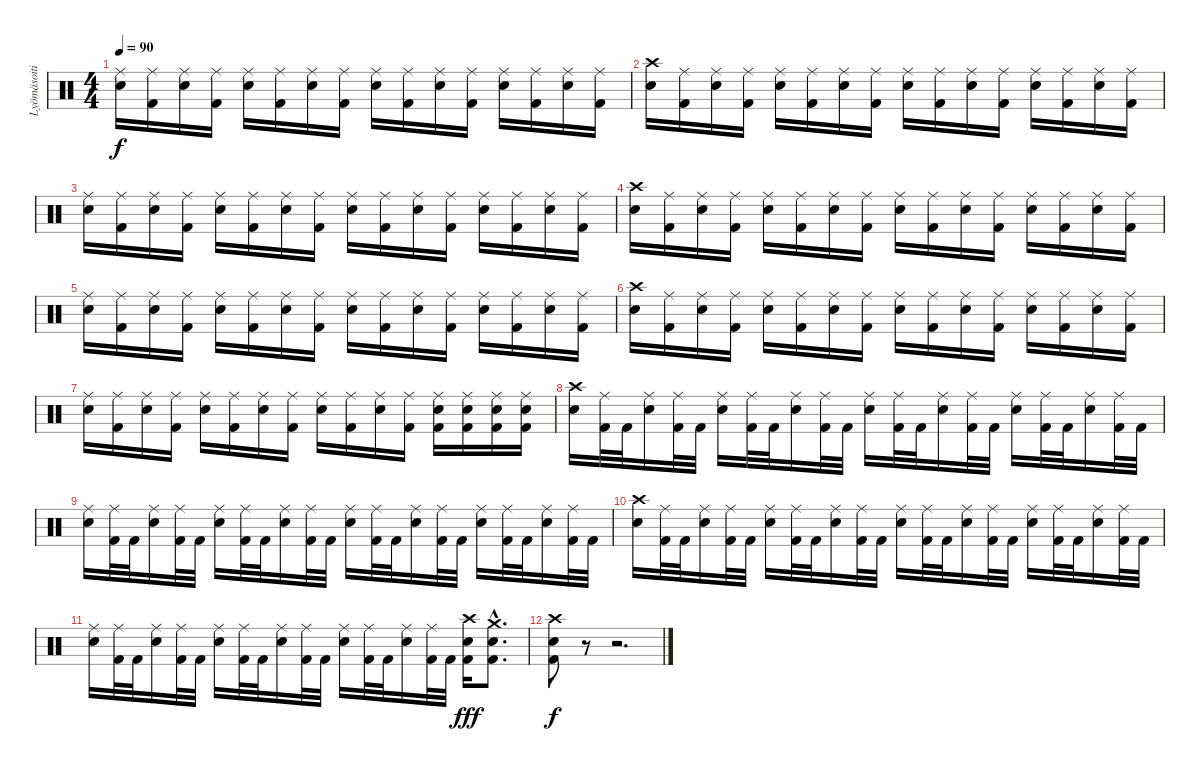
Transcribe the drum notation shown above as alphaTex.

\track ("Lyömäsoitin" "Lyömäsoiti") {instrument percussion}
\staff {score}
\articulation defaults
\ts (4 4)
\tempo 90
\clef neutral
\ks c
("Ride (middle)" "Snare (hit) 2").16{dy f} ("Ride (middle)" "Kick (hit) 2").16 ("Ride (middle)" "Snare (hit) 2").16 ("Ride (middle)" "Kick (hit) 2").16 ("Ride (middle)" "Snare (hit) 2").16 ("Ride (middle)" "Kick (hit) 2").16 ("Ride (middle)" "Snare (hit) 2").16 ("Ride (middle)" "Kick (hit) 2").16 ("Ride (middle)" "Snare (hit) 2").16 ("Ride (middle)" "Kick (hit) 2").16 ("Ride (middle)" "Snare (hit) 2").16 ("Ride (middle)" "Kick (hit) 2").16 ("Ride (middle)" "Snare (hit) 2").16 ("Ride (middle)" "Kick (hit) 2").16 ("Ride (middle)" "Snare (hit) 2").16 ("Ride (middle)" "Kick (hit) 2").16 |
("Crash high (hit)" "Snare (hit) 2").16 ("Ride (middle)" "Kick (hit) 2").16 ("Ride (middle)" "Snare (hit) 2").16 ("Ride (middle)" "Kick (hit) 2").16 ("Ride (middle)" "Snare (hit) 2").16 ("Ride (middle)" "Kick (hit) 2").16 ("Ride (middle)" "Snare (hit) 2").16 ("Ride (middle)" "Kick (hit) 2").16 ("Ride (middle)" "Snare (hit) 2").16 ("Ride (middle)" "Kick (hit) 2").16 ("Ride (middle)" "Snare (hit) 2").16 ("Ride (middle)" "Kick (hit) 2").16 ("Ride (middle)" "Snare (hit) 2").16 ("Ride (middle)" "Kick (hit) 2").16 ("Ride (middle)" "Snare (hit) 2").16 ("Ride (middle)" "Kick (hit) 2").16 |
("Ride (middle)" "Snare (hit) 2").16 ("Ride (middle)" "Kick (hit) 2").16 ("Ride (middle)" "Snare (hit) 2").16 ("Ride (middle)" "Kick (hit) 2").16 ("Ride (middle)" "Snare (hit) 2").16 ("Ride (middle)" "Kick (hit) 2").16 ("Ride (middle)" "Snare (hit) 2").16 ("Ride (middle)" "Kick (hit) 2").16 ("Ride (middle)" "Snare (hit) 2").16 ("Ride (middle)" "Kick (hit) 2").16 ("Ride (middle)" "Snare (hit) 2").16 ("Ride (middle)" "Kick (hit) 2").16 ("Ride (middle)" "Snare (hit) 2").16 ("Ride (middle)" "Kick (hit) 2").16 ("Ride (middle)" "Snare (hit) 2").16 ("Ride (middle)" "Kick (hit) 2").16 |
("Crash high (hit)" "Snare (hit) 2").16 ("Ride (middle)" "Kick (hit) 2").16 ("Ride (middle)" "Snare (hit) 2").16 ("Ride (middle)" "Kick (hit) 2").16 ("Ride (middle)" "Snare (hit) 2").16 ("Ride (middle)" "Kick (hit) 2").16 ("Ride (middle)" "Snare (hit) 2").16 ("Ride (middle)" "Kick (hit) 2").16 ("Ride (middle)" "Snare (hit) 2").16 ("Ride (middle)" "Kick (hit) 2").16 ("Ride (middle)" "Snare (hit) 2").16 ("Ride (middle)" "Kick (hit) 2").16 ("Ride (middle)" "Snare (hit) 2").16 ("Ride (middle)" "Kick (hit) 2").16 ("Ride (middle)" "Snare (hit) 2").16 ("Ride (middle)" "Kick (hit) 2").16 |
("Ride (middle)" "Snare (hit) 2").16 ("Ride (middle)" "Kick (hit) 2").16 ("Ride (middle)" "Snare (hit) 2").16 ("Ride (middle)" "Kick (hit) 2").16 ("Ride (middle)" "Snare (hit) 2").16 ("Ride (middle)" "Kick (hit) 2").16 ("Ride (middle)" "Snare (hit) 2").16 ("Ride (middle)" "Kick (hit) 2").16 ("Ride (middle)" "Snare (hit) 2").16 ("Ride (middle)" "Kick (hit) 2").16 ("Ride (middle)" "Snare (hit) 2").16 ("Ride (middle)" "Kick (hit) 2").16 ("Ride (middle)" "Snare (hit) 2").16 ("Ride (middle)" "Kick (hit) 2").16 ("Ride (middle)" "Snare (hit) 2").16 ("Ride (middle)" "Kick (hit) 2").16 |
("Crash high (hit)" "Snare (hit) 2").16 ("Ride (middle)" "Kick (hit) 2").16 ("Ride (middle)" "Snare (hit) 2").16 ("Ride (middle)" "Kick (hit) 2").16 ("Ride (middle)" "Snare (hit) 2").16 ("Ride (middle)" "Kick (hit) 2").16 ("Ride (middle)" "Snare (hit) 2").16 ("Ride (middle)" "Kick (hit) 2").16 ("Ride (middle)" "Snare (hit) 2").16 ("Ride (middle)" "Kick (hit) 2").16 ("Ride (middle)" "Snare (hit) 2").16 ("Ride (middle)" "Kick (hit) 2").16 ("Ride (middle)" "Snare (hit) 2").16 ("Ride (middle)" "Kick (hit) 2").16 ("Ride (middle)" "Snare (hit) 2").16 ("Ride (middle)" "Kick (hit) 2").16 |
("Ride (middle)" "Snare (hit) 2").16 ("Ride (middle)" "Kick (hit) 2").16 ("Ride (middle)" "Snare (hit) 2").16 ("Ride (middle)" "Kick (hit) 2").16 ("Ride (middle)" "Snare (hit) 2").16 ("Ride (middle)" "Kick (hit) 2").16 ("Ride (middle)" "Snare (hit) 2").16 ("Ride (middle)" "Kick (hit) 2").16 ("Ride (middle)" "Snare (hit) 2").16 ("Ride (middle)" "Kick (hit) 2").16 ("Ride (middle)" "Snare (hit) 2").16 ("Ride (middle)" "Kick (hit) 2").16 ("Ride (middle)" "Snare (hit) 2" "Kick (hit) 2").16 ("Ride (middle)" "Snare (hit) 2" "Kick (hit) 2").16 ("Ride (middle)" "Snare (hit) 2" "Kick (hit) 2").16 ("Ride (middle)" "Snare (hit) 2" "Kick (hit) 2").16 |
("Crash high (hit)" "Snare (hit) 2").16 ("Ride (middle)" "Kick (hit) 2").32 "Kick (hit) 2".32 ("Ride (middle)" "Snare (hit) 2").16 ("Ride (middle)" "Kick (hit) 2").32 "Kick (hit) 2".32 ("Ride (middle)" "Snare (hit) 2").16 ("Ride (middle)" "Kick (hit) 2").32 "Kick (hit) 2".32 ("Ride (middle)" "Snare (hit) 2").16 ("Ride (middle)" "Kick (hit) 2").32 "Kick (hit) 2".32 ("Ride (middle)" "Snare (hit) 2").16 ("Ride (middle)" "Kick (hit) 2").32 "Kick (hit) 2".32 ("Ride (middle)" "Snare (hit) 2").16 ("Ride (middle)" "Kick (hit) 2").32 "Kick (hit) 2".32 ("Ride (middle)" "Snare (hit) 2").16 ("Ride (middle)" "Kick (hit) 2").32 "Kick (hit) 2".32 ("Ride (middle)" "Snare (hit) 2").16 ("Ride (middle)" "Kick (hit) 2").32 "Kick (hit) 2".32 |
("Ride (middle)" "Snare (hit) 2").16 ("Ride (middle)" "Kick (hit) 2").32 "Kick (hit) 2".32 ("Ride (middle)" "Snare (hit) 2").16 ("Ride (middle)" "Kick (hit) 2").32 "Kick (hit) 2".32 ("Ride (middle)" "Snare (hit) 2").16 ("Ride (middle)" "Kick (hit) 2").32 "Kick (hit) 2".32 ("Ride (middle)" "Snare (hit) 2").16 ("Ride (middle)" "Kick (hit) 2").32 "Kick (hit) 2".32 ("Ride (middle)" "Snare (hit) 2").16 ("Ride (middle)" "Kick (hit) 2").32 "Kick (hit) 2".32 ("Ride (middle)" "Snare (hit) 2").16 ("Ride (middle)" "Kick (hit) 2").32 "Kick (hit) 2".32 ("Ride (middle)" "Snare (hit) 2").16 ("Ride (middle)" "Kick (hit) 2").32 "Kick (hit) 2".32 ("Ride (middle)" "Snare (hit) 2").16 ("Ride (middle)" "Kick (hit) 2").32 "Kick (hit) 2".32 |
("Crash high (hit)" "Snare (hit) 2").16 ("Ride (middle)" "Kick (hit) 2").32 "Kick (hit) 2".32 ("Ride (middle)" "Snare (hit) 2").16 ("Ride (middle)" "Kick (hit) 2").32 "Kick (hit) 2".32 ("Ride (middle)" "Snare (hit) 2").16 ("Ride (middle)" "Kick (hit) 2").32 "Kick (hit) 2".32 ("Ride (middle)" "Snare (hit) 2").16 ("Ride (middle)" "Kick (hit) 2").32 "Kick (hit) 2".32 ("Ride (middle)" "Snare (hit) 2").16 ("Ride (middle)" "Kick (hit) 2").32 "Kick (hit) 2".32 ("Ride (middle)" "Snare (hit) 2").16 ("Ride (middle)" "Kick (hit) 2").32 "Kick (hit) 2".32 ("Ride (middle)" "Snare (hit) 2").16 ("Ride (middle)" "Kick (hit) 2").32 "Kick (hit) 2".32 ("Ride (middle)" "Snare (hit) 2").16 ("Ride (middle)" "Kick (hit) 2").32 "Kick (hit) 2".32 |
("Ride (middle)" "Snare (hit) 2").16 ("Ride (middle)" "Kick (hit) 2").32 "Kick (hit) 2".32 ("Ride (middle)" "Snare (hit) 2").16 ("Ride (middle)" "Kick (hit) 2").32 "Kick (hit) 2".32 ("Ride (middle)" "Snare (hit) 2").16 ("Ride (middle)" "Kick (hit) 2").32 "Kick (hit) 2".32 ("Ride (middle)" "Snare (hit) 2").16 ("Ride (middle)" "Kick (hit) 2").32 "Kick (hit) 2".32 ("Ride (middle)" "Snare (hit) 2").16 ("Ride (middle)" "Kick (hit) 2").32 "Kick (hit) 2".32 ("Ride (middle)" "Snare (hit) 2").16 ("Ride (middle)" "Kick (hit) 2").32 "Kick (hit) 2".32 ("Crash high (hit)" "Snare (hit) 2" "Kick (hit) 2").16{dy fff} ("Crash medium (hit)"{hac} "Snare (hit) 2"{hac} "Kick (hit) 2"{hac}).8{d} |
("Crash high (hit)" "Snare (hit) 2" "Kick (hit) 2").8{dy f} r.8 r.2{d}
